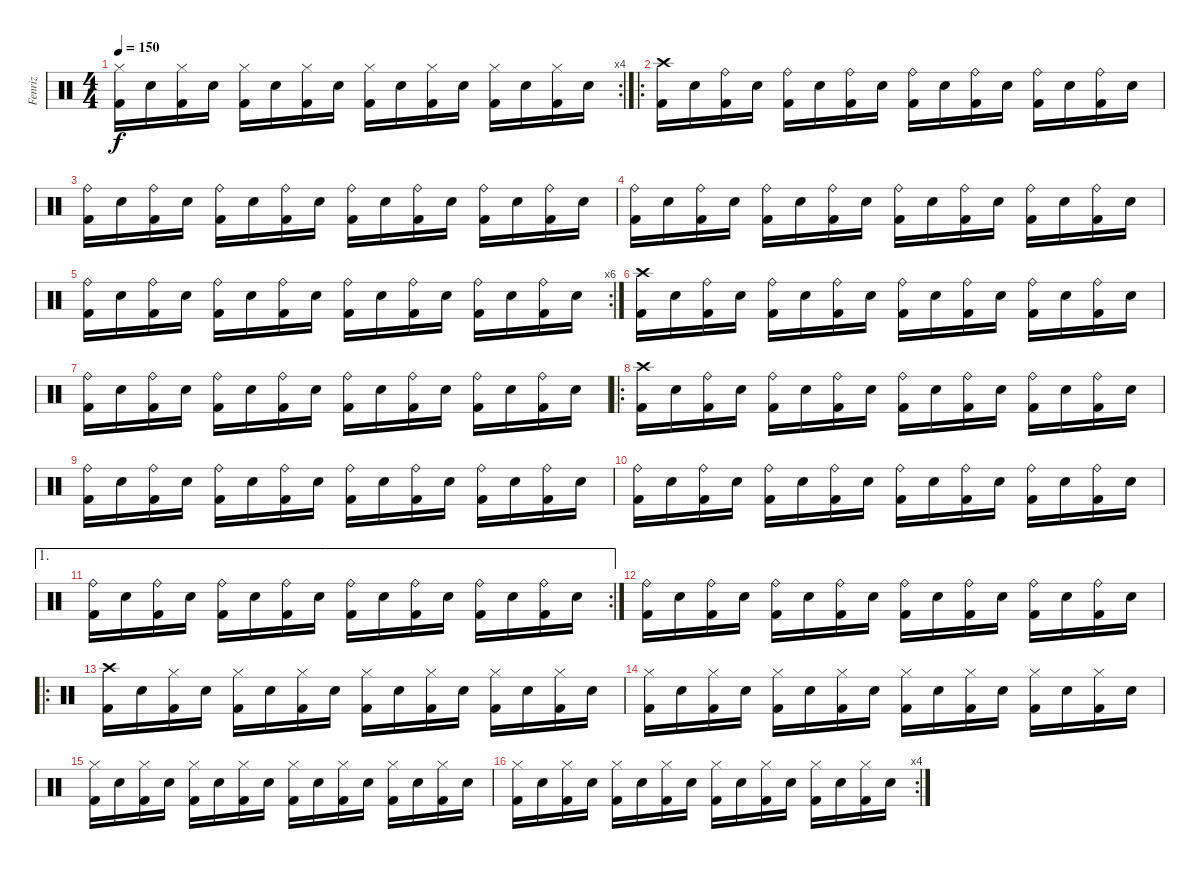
\track ("Fenriz" "Fenriz") {instrument percussion}
\staff {score}
\articulation defaults
\rc 4
\ts (4 4)
\tempo 150
\clef neutral
\ks c
("Hi-Hat (closed)" "Kick (hit) 2").16{dy f} "Snare (hit) 2".16 ("Hi-Hat (closed)" "Kick (hit) 2").16 "Snare (hit) 2".16 ("Hi-Hat (closed)" "Kick (hit) 2").16 "Snare (hit) 2".16 ("Hi-Hat (closed)" "Kick (hit) 2").16 "Snare (hit) 2".16 ("Hi-Hat (closed)" "Kick (hit) 2").16 "Snare (hit) 2".16 ("Hi-Hat (closed)" "Kick (hit) 2").16 "Snare (hit) 2".16 ("Hi-Hat (closed)" "Kick (hit) 2").16 "Snare (hit) 2".16 ("Hi-Hat (closed)" "Kick (hit) 2").16 "Snare (hit) 2".16 |
\ro
("Crash high (hit)" "Kick (hit) 2").16 "Snare (hit) 2".16 ("Ride (bell)" "Kick (hit) 2").16 "Snare (hit) 2".16 ("Ride (bell)" "Kick (hit) 2").16 "Snare (hit) 2".16 ("Ride (bell)" "Kick (hit) 2").16 "Snare (hit) 2".16 ("Ride (bell)" "Kick (hit) 2").16 "Snare (hit) 2".16 ("Ride (bell)" "Kick (hit) 2").16 "Snare (hit) 2".16 ("Ride (bell)" "Kick (hit) 2").16 "Snare (hit) 2".16 ("Ride (bell)" "Kick (hit) 2").16 "Snare (hit) 2".16 |
("Ride (bell)" "Kick (hit) 2").16 "Snare (hit) 2".16 ("Ride (bell)" "Kick (hit) 2").16 "Snare (hit) 2".16 ("Ride (bell)" "Kick (hit) 2").16 "Snare (hit) 2".16 ("Ride (bell)" "Kick (hit) 2").16 "Snare (hit) 2".16 ("Ride (bell)" "Kick (hit) 2").16 "Snare (hit) 2".16 ("Ride (bell)" "Kick (hit) 2").16 "Snare (hit) 2".16 ("Ride (bell)" "Kick (hit) 2").16 "Snare (hit) 2".16 ("Ride (bell)" "Kick (hit) 2").16 "Snare (hit) 2".16 |
("Ride (bell)" "Kick (hit) 2").16 "Snare (hit) 2".16 ("Ride (bell)" "Kick (hit) 2").16 "Snare (hit) 2".16 ("Ride (bell)" "Kick (hit) 2").16 "Snare (hit) 2".16 ("Ride (bell)" "Kick (hit) 2").16 "Snare (hit) 2".16 ("Ride (bell)" "Kick (hit) 2").16 "Snare (hit) 2".16 ("Ride (bell)" "Kick (hit) 2").16 "Snare (hit) 2".16 ("Ride (bell)" "Kick (hit) 2").16 "Snare (hit) 2".16 ("Ride (bell)" "Kick (hit) 2").16 "Snare (hit) 2".16 |
\rc 6
("Ride (bell)" "Kick (hit) 2").16 "Snare (hit) 2".16 ("Ride (bell)" "Kick (hit) 2").16 "Snare (hit) 2".16 ("Ride (bell)" "Kick (hit) 2").16 "Snare (hit) 2".16 ("Ride (bell)" "Kick (hit) 2").16 "Snare (hit) 2".16 ("Ride (bell)" "Kick (hit) 2").16 "Snare (hit) 2".16 ("Ride (bell)" "Kick (hit) 2").16 "Snare (hit) 2".16 ("Ride (bell)" "Kick (hit) 2").16 "Snare (hit) 2".16 ("Ride (bell)" "Kick (hit) 2").16 "Snare (hit) 2".16 |
("Crash high (hit)" "Kick (hit) 2").16 "Snare (hit) 2".16 ("Ride (bell)" "Kick (hit) 2").16 "Snare (hit) 2".16 ("Ride (bell)" "Kick (hit) 2").16 "Snare (hit) 2".16 ("Ride (bell)" "Kick (hit) 2").16 "Snare (hit) 2".16 ("Ride (bell)" "Kick (hit) 2").16 "Snare (hit) 2".16 ("Ride (bell)" "Kick (hit) 2").16 "Snare (hit) 2".16 ("Ride (bell)" "Kick (hit) 2").16 "Snare (hit) 2".16 ("Ride (bell)" "Kick (hit) 2").16 "Snare (hit) 2".16 |
("Ride (bell)" "Kick (hit) 2").16 "Snare (hit) 2".16 ("Ride (bell)" "Kick (hit) 2").16 "Snare (hit) 2".16 ("Ride (bell)" "Kick (hit) 2").16 "Snare (hit) 2".16 ("Ride (bell)" "Kick (hit) 2").16 "Snare (hit) 2".16 ("Ride (bell)" "Kick (hit) 2").16 "Snare (hit) 2".16 ("Ride (bell)" "Kick (hit) 2").16 "Snare (hit) 2".16 ("Ride (bell)" "Kick (hit) 2").16 "Snare (hit) 2".16 ("Ride (bell)" "Kick (hit) 2").16 "Snare (hit) 2".16 |
\ro
("Crash high (hit)" "Kick (hit) 2").16 "Snare (hit) 2".16 ("Ride (bell)" "Kick (hit) 2").16 "Snare (hit) 2".16 ("Ride (bell)" "Kick (hit) 2").16 "Snare (hit) 2".16 ("Ride (bell)" "Kick (hit) 2").16 "Snare (hit) 2".16 ("Ride (bell)" "Kick (hit) 2").16 "Snare (hit) 2".16 ("Ride (bell)" "Kick (hit) 2").16 "Snare (hit) 2".16 ("Ride (bell)" "Kick (hit) 2").16 "Snare (hit) 2".16 ("Ride (bell)" "Kick (hit) 2").16 "Snare (hit) 2".16 |
("Ride (bell)" "Kick (hit) 2").16 "Snare (hit) 2".16 ("Ride (bell)" "Kick (hit) 2").16 "Snare (hit) 2".16 ("Ride (bell)" "Kick (hit) 2").16 "Snare (hit) 2".16 ("Ride (bell)" "Kick (hit) 2").16 "Snare (hit) 2".16 ("Ride (bell)" "Kick (hit) 2").16 "Snare (hit) 2".16 ("Ride (bell)" "Kick (hit) 2").16 "Snare (hit) 2".16 ("Ride (bell)" "Kick (hit) 2").16 "Snare (hit) 2".16 ("Ride (bell)" "Kick (hit) 2").16 "Snare (hit) 2".16 |
("Ride (bell)" "Kick (hit) 2").16 "Snare (hit) 2".16 ("Ride (bell)" "Kick (hit) 2").16 "Snare (hit) 2".16 ("Ride (bell)" "Kick (hit) 2").16 "Snare (hit) 2".16 ("Ride (bell)" "Kick (hit) 2").16 "Snare (hit) 2".16 ("Ride (bell)" "Kick (hit) 2").16 "Snare (hit) 2".16 ("Ride (bell)" "Kick (hit) 2").16 "Snare (hit) 2".16 ("Ride (bell)" "Kick (hit) 2").16 "Snare (hit) 2".16 ("Ride (bell)" "Kick (hit) 2").16 "Snare (hit) 2".16 |
\ae 1
\rc 2
("Ride (bell)" "Kick (hit) 2").16 "Snare (hit) 2".16 ("Ride (bell)" "Kick (hit) 2").16 "Snare (hit) 2".16 ("Ride (bell)" "Kick (hit) 2").16 "Snare (hit) 2".16 ("Ride (bell)" "Kick (hit) 2").16 "Snare (hit) 2".16 ("Ride (bell)" "Kick (hit) 2").16 "Snare (hit) 2".16 ("Ride (bell)" "Kick (hit) 2").16 "Snare (hit) 2".16 ("Ride (bell)" "Kick (hit) 2").16 "Snare (hit) 2".16 ("Ride (bell)" "Kick (hit) 2").16 "Snare (hit) 2".16 |
("Ride (bell)" "Kick (hit) 2").16 "Snare (hit) 2".16 ("Ride (bell)" "Kick (hit) 2").16 "Snare (hit) 2".16 ("Ride (bell)" "Kick (hit) 2").16 "Snare (hit) 2".16 ("Ride (bell)" "Kick (hit) 2").16 "Snare (hit) 2".16 ("Ride (bell)" "Kick (hit) 2").16 "Snare (hit) 2".16 ("Ride (bell)" "Kick (hit) 2").16 "Snare (hit) 2".16 ("Ride (bell)" "Kick (hit) 2").16 "Snare (hit) 2".16 ("Ride (bell)" "Kick (hit) 2").16 "Snare (hit) 2".16 |
\ro
("Crash high (hit)" "Kick (hit) 2").16 "Snare (hit) 2".16 ("Hi-Hat (closed)" "Kick (hit) 2").16 "Snare (hit) 2".16 ("Hi-Hat (closed)" "Kick (hit) 2").16 "Snare (hit) 2".16 ("Hi-Hat (closed)" "Kick (hit) 2").16 "Snare (hit) 2".16 ("Hi-Hat (closed)" "Kick (hit) 2").16 "Snare (hit) 2".16 ("Hi-Hat (closed)" "Kick (hit) 2").16 "Snare (hit) 2".16 ("Hi-Hat (closed)" "Kick (hit) 2").16 "Snare (hit) 2".16 ("Hi-Hat (closed)" "Kick (hit) 2").16 "Snare (hit) 2".16 |
("Hi-Hat (closed)" "Kick (hit) 2").16 "Snare (hit) 2".16 ("Hi-Hat (closed)" "Kick (hit) 2").16 "Snare (hit) 2".16 ("Hi-Hat (closed)" "Kick (hit) 2").16 "Snare (hit) 2".16 ("Hi-Hat (closed)" "Kick (hit) 2").16 "Snare (hit) 2".16 ("Hi-Hat (closed)" "Kick (hit) 2").16 "Snare (hit) 2".16 ("Hi-Hat (closed)" "Kick (hit) 2").16 "Snare (hit) 2".16 ("Hi-Hat (closed)" "Kick (hit) 2").16 "Snare (hit) 2".16 ("Hi-Hat (closed)" "Kick (hit) 2").16 "Snare (hit) 2".16 |
("Hi-Hat (closed)" "Kick (hit) 2").16 "Snare (hit) 2".16 ("Hi-Hat (closed)" "Kick (hit) 2").16 "Snare (hit) 2".16 ("Hi-Hat (closed)" "Kick (hit) 2").16 "Snare (hit) 2".16 ("Hi-Hat (closed)" "Kick (hit) 2").16 "Snare (hit) 2".16 ("Hi-Hat (closed)" "Kick (hit) 2").16 "Snare (hit) 2".16 ("Hi-Hat (closed)" "Kick (hit) 2").16 "Snare (hit) 2".16 ("Hi-Hat (closed)" "Kick (hit) 2").16 "Snare (hit) 2".16 ("Hi-Hat (closed)" "Kick (hit) 2").16 "Snare (hit) 2".16 |
\rc 4
("Hi-Hat (closed)" "Kick (hit) 2").16 "Snare (hit) 2".16 ("Hi-Hat (closed)" "Kick (hit) 2").16 "Snare (hit) 2".16 ("Hi-Hat (closed)" "Kick (hit) 2").16 "Snare (hit) 2".16 ("Hi-Hat (closed)" "Kick (hit) 2").16 "Snare (hit) 2".16 ("Hi-Hat (closed)" "Kick (hit) 2").16 "Snare (hit) 2".16 ("Hi-Hat (closed)" "Kick (hit) 2").16 "Snare (hit) 2".16 ("Hi-Hat (closed)" "Kick (hit) 2").16 "Snare (hit) 2".16 ("Hi-Hat (closed)" "Kick (hit) 2").16 "Snare (hit) 2".16
